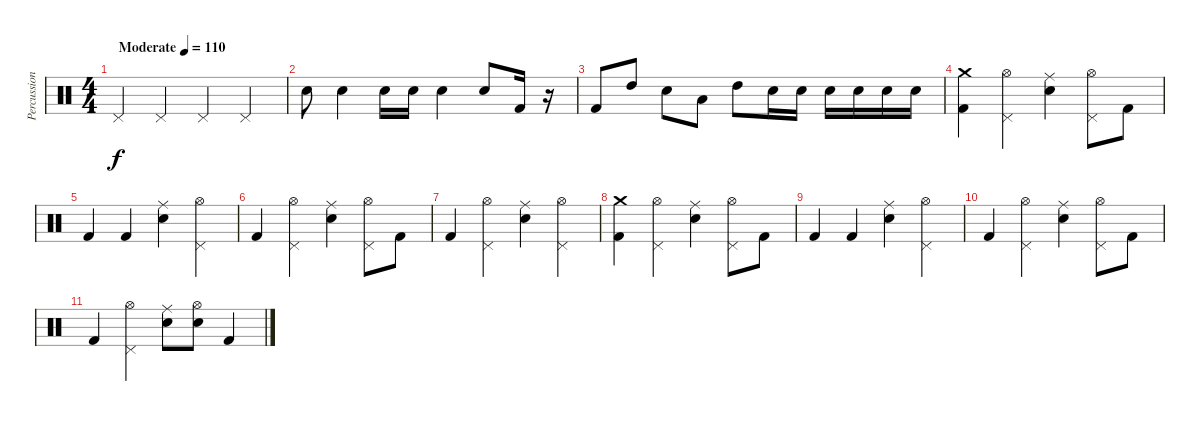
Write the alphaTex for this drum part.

\track ("Percussion" "Percussion") {instrument percussion}
\staff {score}
\articulation defaults
\ts (4 4)
\tempo (110 "Moderate")
\clef neutral
\ks c "Pedal Hi-Hat (hit)".4{dy f} "Pedal Hi-Hat (hit)".4 "Pedal Hi-Hat (hit)".4 "Pedal Hi-Hat (hit)".4
|
"Electric Snare (hit)".8 "Electric Snare (hit)".4 "Electric Snare (hit)".16 "Electric Snare (hit)".16 "Electric Snare (hit)".4 "Electric Snare (hit)".8 "Kick (hit) 2".16 r.16 |
"Kick (hit) 2".8 "High Tom (hit)".8 "Electric Snare (hit)".8 "Low Tom (hit)".8 "High Tom (hit)".8 "Electric Snare (hit)".16 "Electric Snare (hit)".16 "Electric Snare (hit)".16 "Electric Snare (hit)".16 "Electric Snare (hit)".16 "Electric Snare (hit)".16 |
("Crash medium (hit)" "Kick (hit) 2").4 ("Hi-Hat (open)" "Pedal Hi-Hat (hit)").4 ("Ride (middle)" "Electric Snare (hit)").4 ("Hi-Hat (open)" "Pedal Hi-Hat (hit)").8 "Kick (hit) 2".8 |
"Kick (hit) 2".4 "Kick (hit) 2".4 ("Ride (middle)" "Electric Snare (hit)").4 ("Hi-Hat (open)" "Pedal Hi-Hat (hit)").4 |
"Kick (hit) 2".4 ("Hi-Hat (open)" "Pedal Hi-Hat (hit)").4 ("Ride (middle)" "Electric Snare (hit)").4 ("Hi-Hat (open)" "Pedal Hi-Hat (hit)").8 "Kick (hit) 2".8 |
"Kick (hit) 2".4 ("Hi-Hat (open)" "Pedal Hi-Hat (hit)").4 ("Ride (middle)" "Electric Snare (hit)").4 ("Hi-Hat (open)" "Pedal Hi-Hat (hit)").4 |
("Crash medium (hit)" "Kick (hit) 2").4 ("Hi-Hat (open)" "Pedal Hi-Hat (hit)").4 ("Ride (middle)" "Electric Snare (hit)").4 ("Hi-Hat (open)" "Pedal Hi-Hat (hit)").8 "Kick (hit) 2".8 |
"Kick (hit) 2".4 "Kick (hit) 2".4 ("Ride (middle)" "Electric Snare (hit)").4 ("Hi-Hat (open)" "Pedal Hi-Hat (hit)").4 |
"Kick (hit) 2".4 ("Hi-Hat (open)" "Pedal Hi-Hat (hit)").4 ("Ride (middle)" "Electric Snare (hit)").4 ("Hi-Hat (open)" "Pedal Hi-Hat (hit)").8 "Kick (hit) 2".8 |
"Kick (hit) 2".4 ("Hi-Hat (open)" "Pedal Hi-Hat (hit)").4 ("Ride (middle)" "Electric Snare (hit)").8 ("Hi-Hat (open)" "Electric Snare (hit)").8 "Kick (hit) 2".4
